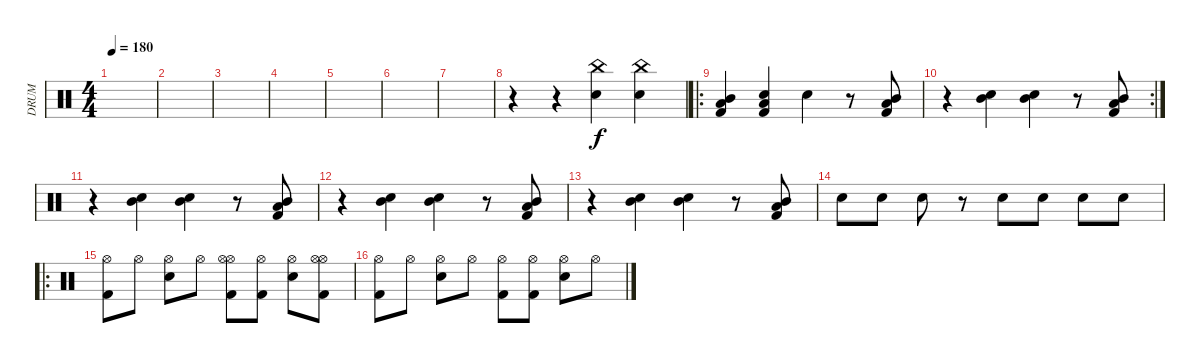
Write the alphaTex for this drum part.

\track ("DRUM" "DRUM") {instrument percussion}
\staff {score}
\articulation defaults
\ts (4 4)
\tempo 180
\clef neutral
\ks c
|
|
|
|
|
|
|
r.4 r.4 ("China (hit)" "Snare (hit) 2").4 ("China (hit)" "Snare (hit) 2").4 |
\ro
("Mid Tom (hit)" "Low Tom (hit)" "Kick (hit) 2").4 ("Snare (hit) 2" "Low Tom (hit)" "Kick (hit) 2").4 "Snare (hit) 2".4 r.8 ("Mid Tom (hit)" "Low Tom (hit)" "Kick (hit) 2").8 |
\rc 2
r.4 ("Mid Tom (hit)" "Snare (hit) 2").4 ("Mid Tom (hit)" "Snare (hit) 2").4 r.8 ("Mid Tom (hit)" "Low Tom (hit)" "Kick (hit) 2").8 |
r.4 ("Mid Tom (hit)" "Snare (hit) 2").4 ("Mid Tom (hit)" "Snare (hit) 2").4 r.8 ("Mid Tom (hit)" "Low Floor Tom (hit)" "Kick (hit) 2").8 |
r.4 ("Mid Tom (hit)" "Snare (hit) 2").4 ("Mid Tom (hit)" "Snare (hit) 2").4 r.8 ("Mid Tom (hit)" "Low Floor Tom (hit)" "Kick (hit) 2").8 |
r.4 ("Mid Tom (hit)" "Snare (hit) 2").4 ("Mid Tom (hit)" "Snare (hit) 2").4 r.8 ("Mid Tom (hit)" "Low Floor Tom (hit)" "Kick (hit) 2").8 |
"Snare (hit) 2".8 "Snare (hit) 2".8 "Snare (hit) 2".8 r.8 "Snare (hit) 2".8 "Snare (hit) 2".8 "Snare (hit) 2".8 "Snare (hit) 2".8 |
\ro
("Hi-Hat (open)" "Kick (hit) 2").8 "Hi-Hat (open)".8 ("Hi-Hat (open)" "Snare (hit) 2").8 "Hi-Hat (open)".8 ("Hi-Hat (open)" "Hi-Hat (open)" "Kick (hit) 2").8 ("Hi-Hat (open)" "Kick (hit) 2").8 ("Hi-Hat (open)" "Snare (hit) 2").8 ("Hi-Hat (open)" "Hi-Hat (open)" "Kick (hit) 2").8 |
("Hi-Hat (open)" "Kick (hit) 2").8 "Hi-Hat (open)".8 ("Hi-Hat (open)" "Snare (hit) 2").8 "Hi-Hat (open)".8 ("Hi-Hat (open)" "Kick (hit) 2").8 ("Hi-Hat (open)" "Kick (hit) 2").8 ("Hi-Hat (open)" "Snare (hit) 2").8 "Hi-Hat (open)".8
